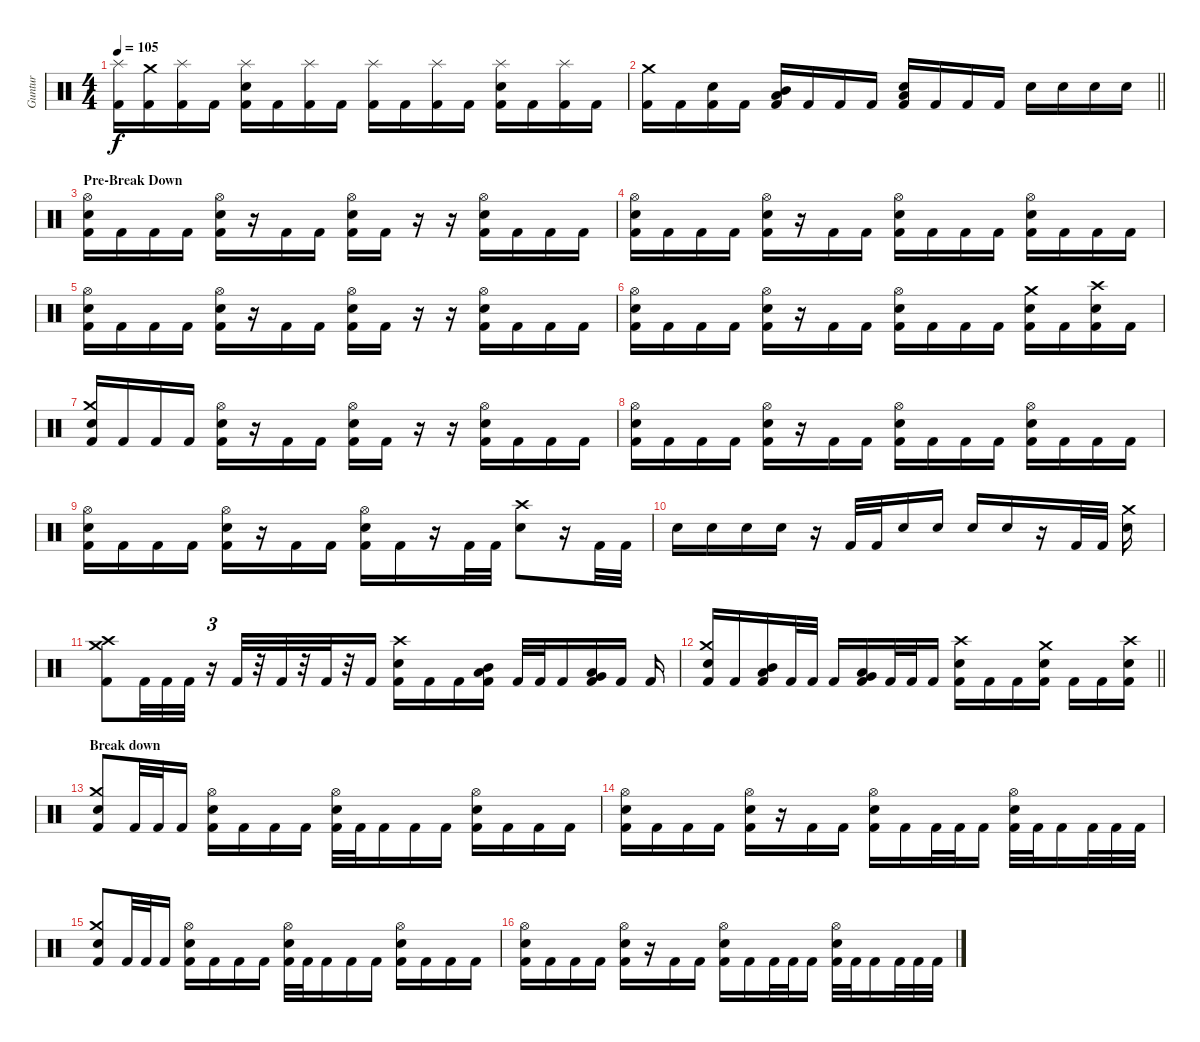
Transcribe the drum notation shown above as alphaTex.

\track ("Guntur" "Guntur") {instrument percussion}
\staff {score}
\articulation defaults
\ts (4 4)
\tempo 105
\clef neutral
\ks c
("Splash (hit)" "Kick (hit) 2").16{dy f} ("Crash medium (hit)" "Kick (hit) 2").16 ("Splash (hit)" "Kick (hit) 2").16 "Kick (hit) 2".16 ("Splash (hit)" "Electric Snare (hit)" "Kick (hit) 2").16 "Kick (hit) 2".16 ("Splash (hit)" "Kick (hit) 2").16 "Kick (hit) 2".16 ("Splash (hit)" "Kick (hit) 2").16 "Kick (hit) 2".16 ("Splash (hit)" "Kick (hit) 2").16 "Kick (hit) 2".16 ("Splash (hit)" "Electric Snare (hit)" "Kick (hit) 2").16 "Kick (hit) 2".16 ("Splash (hit)" "Kick (hit) 2").16 "Kick (hit) 2".16 |
\barLineRight lightlight
("Crash medium (hit)" "Kick (hit) 2").16 "Kick (hit) 2".16 ("Electric Snare (hit)" "Kick (hit) 2").16 "Kick (hit) 2".16 ("Mid Tom (hit)" "Low Tom (hit)" "Kick (hit) 2").16 "Kick (hit) 2".16 "Kick (hit) 2".16 "Kick (hit) 2".16 ("Low Floor Tom (hit)" "Electric Snare (hit)" "Kick (hit) 2").16 "Kick (hit) 2".16 "Kick (hit) 2".16 "Kick (hit) 2".16 "Electric Snare (hit)".16 "Electric Snare (hit)".16 "Electric Snare (hit)".16 "Electric Snare (hit)".16 |
\section ("" "Pre-Break Down")
("Hi-Hat (open)" "Electric Snare (hit)" "Kick (hit) 2").16 "Kick (hit) 2".16 "Kick (hit) 2".16 "Kick (hit) 2".16 ("Hi-Hat (open)" "Electric Snare (hit)" "Kick (hit) 2").16 r.16 "Kick (hit) 2".16 "Kick (hit) 2".16 ("Hi-Hat (open)" "Electric Snare (hit)" "Kick (hit) 2").16 "Kick (hit) 2".16 r.16 r.16 ("Hi-Hat (open)" "Electric Snare (hit)" "Kick (hit) 2").16 "Kick (hit) 2".16 "Kick (hit) 2".16 "Kick (hit) 2".16 |
("Hi-Hat (open)" "Electric Snare (hit)" "Kick (hit) 2").16 "Kick (hit) 2".16 "Kick (hit) 2".16 "Kick (hit) 2".16 ("Hi-Hat (open)" "Electric Snare (hit)" "Kick (hit) 2").16 r.16 "Kick (hit) 2".16 "Kick (hit) 2".16 ("Hi-Hat (open)" "Electric Snare (hit)" "Kick (hit) 2").16 "Kick (hit) 2".16 "Kick (hit) 2".16 "Kick (hit) 2".16 ("Hi-Hat (open)" "Electric Snare (hit)" "Kick (hit) 2").16 "Kick (hit) 2".16 "Kick (hit) 2".16 "Kick (hit) 2".16 |
("Hi-Hat (open)" "Electric Snare (hit)" "Kick (hit) 2").16 "Kick (hit) 2".16 "Kick (hit) 2".16 "Kick (hit) 2".16 ("Hi-Hat (open)" "Electric Snare (hit)" "Kick (hit) 2").16 r.16 "Kick (hit) 2".16 "Kick (hit) 2".16 ("Hi-Hat (open)" "Electric Snare (hit)" "Kick (hit) 2").16 "Kick (hit) 2".16 r.16 r.16 ("Hi-Hat (open)" "Electric Snare (hit)" "Kick (hit) 2").16 "Kick (hit) 2".16 "Kick (hit) 2".16 "Kick (hit) 2".16 |
("Hi-Hat (open)" "Electric Snare (hit)" "Kick (hit) 2").16 "Kick (hit) 2".16 "Kick (hit) 2".16 "Kick (hit) 2".16 ("Hi-Hat (open)" "Electric Snare (hit)" "Kick (hit) 2").16 r.16 "Kick (hit) 2".16 "Kick (hit) 2".16 ("Hi-Hat (open)" "Electric Snare (hit)" "Kick (hit) 2").16 "Kick (hit) 2".16 "Kick (hit) 2".16 "Kick (hit) 2".16 ("Crash medium (hit)" "Electric Snare (hit)" "Kick (hit) 2").16 "Kick (hit) 2".16 ("Crash high (hit)" "Electric Snare (hit)" "Kick (hit) 2").16 "Kick (hit) 2".16 |
("Crash medium (hit)" "Electric Snare (hit)" "Kick (hit) 2").16 "Kick (hit) 2".16 "Kick (hit) 2".16 "Kick (hit) 2".16 ("Hi-Hat (open)" "Electric Snare (hit)" "Kick (hit) 2").16 r.16 "Kick (hit) 2".16 "Kick (hit) 2".16 ("Hi-Hat (open)" "Electric Snare (hit)" "Kick (hit) 2").16 "Kick (hit) 2".16 r.16 r.16 ("Hi-Hat (open)" "Electric Snare (hit)" "Kick (hit) 2").16 "Kick (hit) 2".16 "Kick (hit) 2".16 "Kick (hit) 2".16 |
("Hi-Hat (open)" "Electric Snare (hit)" "Kick (hit) 2").16 "Kick (hit) 2".16 "Kick (hit) 2".16 "Kick (hit) 2".16 ("Hi-Hat (open)" "Electric Snare (hit)" "Kick (hit) 2").16 r.16 "Kick (hit) 2".16 "Kick (hit) 2".16 ("Hi-Hat (open)" "Electric Snare (hit)" "Kick (hit) 2").16 "Kick (hit) 2".16 "Kick (hit) 2".16 "Kick (hit) 2".16 ("Hi-Hat (open)" "Electric Snare (hit)" "Kick (hit) 2").16 "Kick (hit) 2".16 "Kick (hit) 2".16 "Kick (hit) 2".16 |
("Hi-Hat (open)" "Electric Snare (hit)" "Kick (hit) 2").16 "Kick (hit) 2".16 "Kick (hit) 2".16 "Kick (hit) 2".16 ("Hi-Hat (open)" "Electric Snare (hit)" "Kick (hit) 2").16 r.16 "Kick (hit) 2".16 "Kick (hit) 2".16 ("Hi-Hat (open)" "Electric Snare (hit)" "Kick (hit) 2").16 "Kick (hit) 2".16 r.16 "Kick (hit) 2".32 "Kick (hit) 2".32 ("Crash high (hit)" "Electric Snare (hit)").8 r.16 "Kick (hit) 2".32 "Kick (hit) 2".32 |
"Electric Snare (hit)".16 "Electric Snare (hit)".16 "Electric Snare (hit)".16 "Electric Snare (hit)".16 r.16 "Kick (hit) 2".32 "Kick (hit) 2".32 "Electric Snare (hit)".16 "Electric Snare (hit)".16 "Electric Snare (hit)".16 "Electric Snare (hit)".16 r.16 "Kick (hit) 2".32 "Kick (hit) 2".32 ("Crash medium (hit)" "Electric Snare (hit)").16 |
("Crash high (hit)" "Crash medium (hit)" "Kick (hit) 2").8 "Kick (hit) 2".32 "Kick (hit) 2".32 "Kick (hit) 2".32 r.16{tu (3 2)} "Kick (hit) 2".32 r.32 "Kick (hit) 2".32 r.32 "Kick (hit) 2".32 r.32 "Kick (hit) 2".16 ("Crash high (hit)" "Electric Snare (hit)" "Kick (hit) 2").16 "Kick (hit) 2".16 "Kick (hit) 2".16 ("Low Tom (hit)" "Mid Tom (hit)" "Kick (hit) 2").16 "Kick (hit) 2".32 "Kick (hit) 2".32 "Kick (hit) 2".16 ("Low Floor Tom (hit)" "Very Low Tom (hit)" "Kick (hit) 2").16 "Kick (hit) 2".16 "Kick (hit) 2".16 |
\barLineRight lightlight
("Crash medium (hit)" "Electric Snare (hit)" "Kick (hit) 2").16 "Kick (hit) 2".16 ("Low Tom (hit)" "Mid Tom (hit)" "Kick (hit) 2").16 "Kick (hit) 2".32 "Kick (hit) 2".32 "Kick (hit) 2".16 ("Low Floor Tom (hit)" "Very Low Tom (hit)" "Kick (hit) 2").16 "Kick (hit) 2".32 "Kick (hit) 2".32 "Kick (hit) 2".16 ("Crash high (hit)" "Electric Snare (hit)" "Kick (hit) 2").16 "Kick (hit) 2".16 "Kick (hit) 2".16 ("Crash medium (hit)" "Electric Snare (hit)" "Kick (hit) 2").16 "Kick (hit) 2".16 "Kick (hit) 2".16 ("Crash high (hit)" "Electric Snare (hit)" "Kick (hit) 2").16 |
\section ("" "Break down")
("Crash medium (hit)" "Electric Snare (hit)" "Kick (hit) 2").8 "Kick (hit) 2".32 "Kick (hit) 2".32 "Kick (hit) 2".16 ("Hi-Hat (open)" "Electric Snare (hit)" "Kick (hit) 2").16 "Kick (hit) 2".16 "Kick (hit) 2".16 "Kick (hit) 2".16 ("Hi-Hat (open)" "Electric Snare (hit)" "Kick (hit) 2").32 "Kick (hit) 2".32 "Kick (hit) 2".16 "Kick (hit) 2".16 "Kick (hit) 2".16 ("Hi-Hat (open)" "Electric Snare (hit)" "Kick (hit) 2").16 "Kick (hit) 2".16 "Kick (hit) 2".16 "Kick (hit) 2".16 |
("Hi-Hat (open)" "Electric Snare (hit)" "Kick (hit) 2").16 "Kick (hit) 2".16 "Kick (hit) 2".16 "Kick (hit) 2".16 ("Hi-Hat (open)" "Electric Snare (hit)" "Kick (hit) 2").16 r.16 "Kick (hit) 2".16 "Kick (hit) 2".16 ("Hi-Hat (open)" "Electric Snare (hit)" "Kick (hit) 2").16 "Kick (hit) 2".16 "Kick (hit) 2".32 "Kick (hit) 2".32 "Kick (hit) 2".16 ("Hi-Hat (open)" "Electric Snare (hit)" "Kick (hit) 2").32 "Kick (hit) 2".32 "Kick (hit) 2".16 "Kick (hit) 2".32 "Kick (hit) 2".32 "Kick (hit) 2".32 |
("Crash medium (hit)" "Electric Snare (hit)" "Kick (hit) 2").8 "Kick (hit) 2".32 "Kick (hit) 2".32 "Kick (hit) 2".16 ("Hi-Hat (open)" "Electric Snare (hit)" "Kick (hit) 2").16 "Kick (hit) 2".16 "Kick (hit) 2".16 "Kick (hit) 2".16 ("Hi-Hat (open)" "Electric Snare (hit)" "Kick (hit) 2").32 "Kick (hit) 2".32 "Kick (hit) 2".16 "Kick (hit) 2".16 "Kick (hit) 2".16 ("Hi-Hat (open)" "Electric Snare (hit)" "Kick (hit) 2").16 "Kick (hit) 2".16 "Kick (hit) 2".16 "Kick (hit) 2".16 |
("Hi-Hat (open)" "Electric Snare (hit)" "Kick (hit) 2").16 "Kick (hit) 2".16 "Kick (hit) 2".16 "Kick (hit) 2".16 ("Hi-Hat (open)" "Electric Snare (hit)" "Kick (hit) 2").16 r.16 "Kick (hit) 2".16 "Kick (hit) 2".16 ("Hi-Hat (open)" "Electric Snare (hit)" "Kick (hit) 2").16 "Kick (hit) 2".16 "Kick (hit) 2".32 "Kick (hit) 2".32 "Kick (hit) 2".16 ("Hi-Hat (open)" "Electric Snare (hit)" "Kick (hit) 2").32 "Kick (hit) 2".32 "Kick (hit) 2".16 "Kick (hit) 2".32 "Kick (hit) 2".32 "Kick (hit) 2".32
